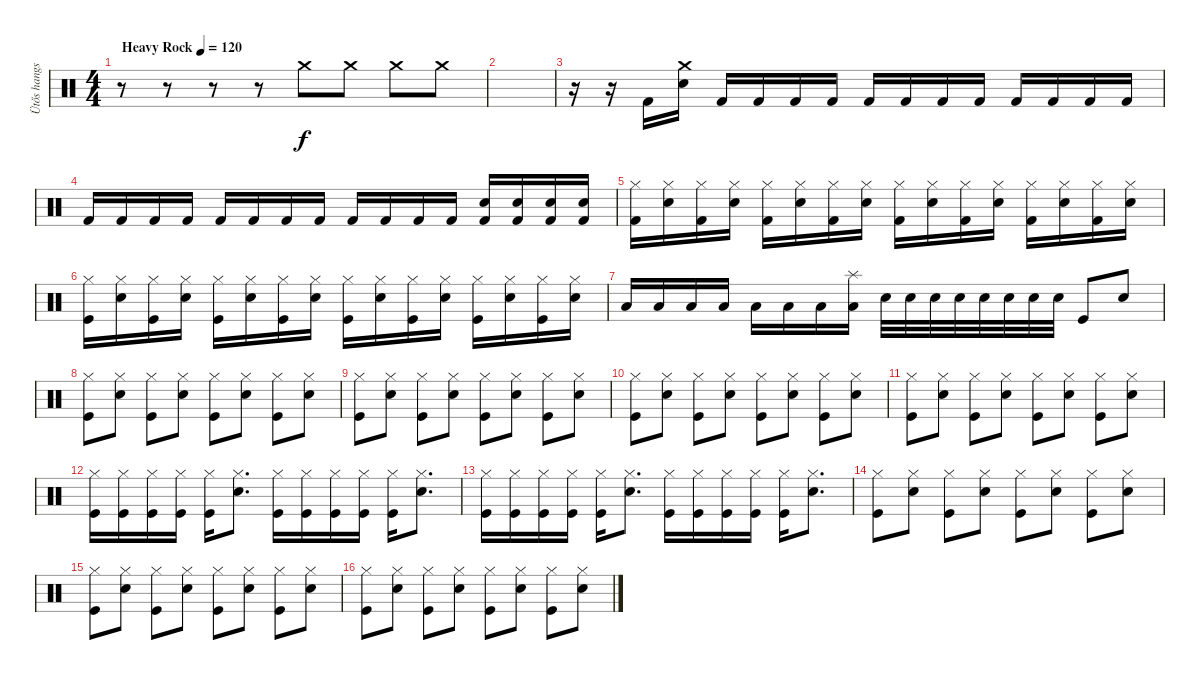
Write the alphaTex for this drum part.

\track ("Ütős hangszer" "Ütős hangs") {instrument percussion}
\staff {score}
\articulation defaults
\ts (4 4)
\tempo (120 "Heavy Rock")
\clef neutral
\ks c
r.8{dy f} r.8 r.8 r.8 "Crash medium (hit)".8 "Crash medium (hit)".8 "Crash medium (hit)".8 "Crash medium (hit)".8 |
|
r.16 r.16 "Kick (hit) 2".16 ("Crash medium (hit)" "Snare (hit) 2").16 "Kick (hit) 2".16 "Kick (hit) 2".16 "Kick (hit) 2".16 "Kick (hit) 2".16 "Kick (hit) 2".16 "Kick (hit) 2".16 "Kick (hit) 2".16 "Kick (hit) 2".16 "Kick (hit) 2".16 "Kick (hit) 2".16 "Kick (hit) 2".16 "Kick (hit) 2".16 |
"Kick (hit) 2".16 "Kick (hit) 2".16 "Kick (hit) 2".16 "Kick (hit) 2".16 "Kick (hit) 2".16 "Kick (hit) 2".16 "Kick (hit) 2".16 "Kick (hit) 2".16 "Kick (hit) 2".16 "Kick (hit) 2".16 "Kick (hit) 2".16 "Kick (hit) 2".16 ("Snare (hit) 2" "Kick (hit) 2").16 ("Snare (hit) 2" "Kick (hit) 2").16 ("Snare (hit) 2" "Kick (hit) 2").16 ("Snare (hit) 2" "Kick (hit) 2").16 |
("Hi-Hat (closed)" "Kick (hit) 2").16 ("Hi-Hat (closed)" "Snare (hit) 2").16 ("Hi-Hat (closed)" "Kick (hit) 2").16 ("Hi-Hat (closed)" "Snare (hit) 2").16 ("Hi-Hat (closed)" "Kick (hit) 2").16 ("Hi-Hat (closed)" "Snare (hit) 2").16 ("Hi-Hat (closed)" "Kick (hit) 2").16 ("Hi-Hat (closed)" "Snare (hit) 2").16 ("Hi-Hat (closed)" "Kick (hit) 2").16 ("Hi-Hat (closed)" "Snare (hit) 2").16 ("Hi-Hat (closed)" "Kick (hit) 2").16 ("Hi-Hat (closed)" "Snare (hit) 2").16 ("Hi-Hat (closed)" "Kick (hit) 2").16 ("Hi-Hat (closed)" "Snare (hit) 2").16 ("Hi-Hat (closed)" "Kick (hit) 2").16 ("Hi-Hat (closed)" "Snare (hit) 2").16 |
("Hi-Hat (closed)" "Kick (hit)").16 ("Hi-Hat (closed)" "Snare (hit) 2").16 ("Hi-Hat (closed)" "Kick (hit)").16 ("Hi-Hat (closed)" "Snare (hit) 2").16 ("Hi-Hat (closed)" "Kick (hit)").16 ("Hi-Hat (closed)" "Snare (hit) 2").16 ("Hi-Hat (closed)" "Kick (hit)").16 ("Hi-Hat (closed)" "Snare (hit) 2").16 ("Hi-Hat (closed)" "Kick (hit)").16 ("Hi-Hat (closed)" "Snare (hit) 2").16 ("Hi-Hat (closed)" "Kick (hit)").16 ("Hi-Hat (closed)" "Snare (hit) 2").16 ("Hi-Hat (closed)" "Kick (hit)").16 ("Hi-Hat (closed)" "Snare (hit) 2").16 ("Hi-Hat (closed)" "Kick (hit)").16 ("Hi-Hat (closed)" "Snare (hit) 2").16 |
"Low Floor Tom (hit)".16 "Low Floor Tom (hit)".16 "Low Floor Tom (hit)".16 "Low Floor Tom (hit)".16 "Low Tom (hit)".16 "Low Tom (hit)".16 "Low Tom (hit)".16 ("Splash (hit)" "Low Tom (hit)").16 "Snare (hit) 2".32 "Snare (hit) 2".32 "Snare (hit) 2".32 "Snare (hit) 2".32 "Snare (hit) 2".32 "Snare (hit) 2".32 "Snare (hit) 2".32 "Snare (hit) 2".32 "Kick (hit)".8 "Snare (hit) 2".8 |
("Hi-Hat (closed)" "Kick (hit)").8 ("Hi-Hat (closed)" "Snare (hit) 2").8 ("Hi-Hat (closed)" "Kick (hit)").8 ("Hi-Hat (closed)" "Snare (hit) 2").8 ("Hi-Hat (closed)" "Kick (hit)").8 ("Hi-Hat (closed)" "Snare (hit) 2").8 ("Hi-Hat (closed)" "Kick (hit)").8 ("Hi-Hat (closed)" "Snare (hit) 2").8 |
("Hi-Hat (closed)" "Kick (hit)").8 ("Hi-Hat (closed)" "Snare (hit) 2").8 ("Hi-Hat (closed)" "Kick (hit)").8 ("Hi-Hat (closed)" "Snare (hit) 2").8 ("Hi-Hat (closed)" "Kick (hit)").8 ("Hi-Hat (closed)" "Snare (hit) 2").8 ("Hi-Hat (closed)" "Kick (hit)").8 ("Hi-Hat (closed)" "Snare (hit) 2").8 |
("Hi-Hat (closed)" "Kick (hit)").8 ("Hi-Hat (closed)" "Snare (hit) 2").8 ("Hi-Hat (closed)" "Kick (hit)").8 ("Hi-Hat (closed)" "Snare (hit) 2").8 ("Hi-Hat (closed)" "Kick (hit)").8 ("Hi-Hat (closed)" "Snare (hit) 2").8 ("Hi-Hat (closed)" "Kick (hit)").8 ("Hi-Hat (closed)" "Snare (hit) 2").8 |
("Hi-Hat (closed)" "Kick (hit)").8 ("Hi-Hat (closed)" "Snare (hit) 2").8 ("Hi-Hat (closed)" "Kick (hit)").8 ("Hi-Hat (closed)" "Snare (hit) 2").8 ("Hi-Hat (closed)" "Kick (hit)").8 ("Hi-Hat (closed)" "Snare (hit) 2").8 ("Hi-Hat (closed)" "Kick (hit)").8 ("Hi-Hat (closed)" "Snare (hit) 2").8 |
("Hi-Hat (closed)" "Kick (hit)").16 ("Hi-Hat (closed)" "Kick (hit)").16 ("Hi-Hat (closed)" "Kick (hit)").16 ("Hi-Hat (closed)" "Kick (hit)").16 ("Hi-Hat (closed)" "Kick (hit)").16 ("Hi-Hat (closed)" "Snare (hit) 2").8{d} ("Hi-Hat (closed)" "Kick (hit)").16 ("Hi-Hat (closed)" "Kick (hit)").16 ("Hi-Hat (closed)" "Kick (hit)").16 ("Hi-Hat (closed)" "Kick (hit)").16 ("Hi-Hat (closed)" "Kick (hit)").16 ("Hi-Hat (closed)" "Snare (hit) 2").8{d} |
("Hi-Hat (closed)" "Kick (hit)").16 ("Hi-Hat (closed)" "Kick (hit)").16 ("Hi-Hat (closed)" "Kick (hit)").16 ("Hi-Hat (closed)" "Kick (hit)").16 ("Hi-Hat (closed)" "Kick (hit)").16 ("Hi-Hat (closed)" "Snare (hit) 2").8{d} ("Hi-Hat (closed)" "Kick (hit)").16 ("Hi-Hat (closed)" "Kick (hit)").16 ("Hi-Hat (closed)" "Kick (hit)").16 ("Hi-Hat (closed)" "Kick (hit)").16 ("Hi-Hat (closed)" "Kick (hit)").16 ("Hi-Hat (closed)" "Snare (hit) 2").8{d} |
("Hi-Hat (closed)" "Kick (hit)").8 ("Hi-Hat (closed)" "Snare (hit) 2").8 ("Hi-Hat (closed)" "Kick (hit)").8 ("Hi-Hat (closed)" "Snare (hit) 2").8 ("Hi-Hat (closed)" "Kick (hit)").8 ("Hi-Hat (closed)" "Snare (hit) 2").8 ("Hi-Hat (closed)" "Kick (hit)").8 ("Hi-Hat (closed)" "Snare (hit) 2").8 |
("Hi-Hat (closed)" "Kick (hit)").8 ("Hi-Hat (closed)" "Snare (hit) 2").8 ("Hi-Hat (closed)" "Kick (hit)").8 ("Hi-Hat (closed)" "Snare (hit) 2").8 ("Hi-Hat (closed)" "Kick (hit)").8 ("Hi-Hat (closed)" "Snare (hit) 2").8 ("Hi-Hat (closed)" "Kick (hit)").8 ("Hi-Hat (closed)" "Snare (hit) 2").8 |
("Hi-Hat (closed)" "Kick (hit)").8 ("Hi-Hat (closed)" "Snare (hit) 2").8 ("Hi-Hat (closed)" "Kick (hit)").8 ("Hi-Hat (closed)" "Snare (hit) 2").8 ("Hi-Hat (closed)" "Kick (hit)").8 ("Hi-Hat (closed)" "Snare (hit) 2").8 ("Hi-Hat (closed)" "Kick (hit)").8 ("Hi-Hat (closed)" "Snare (hit) 2").8
